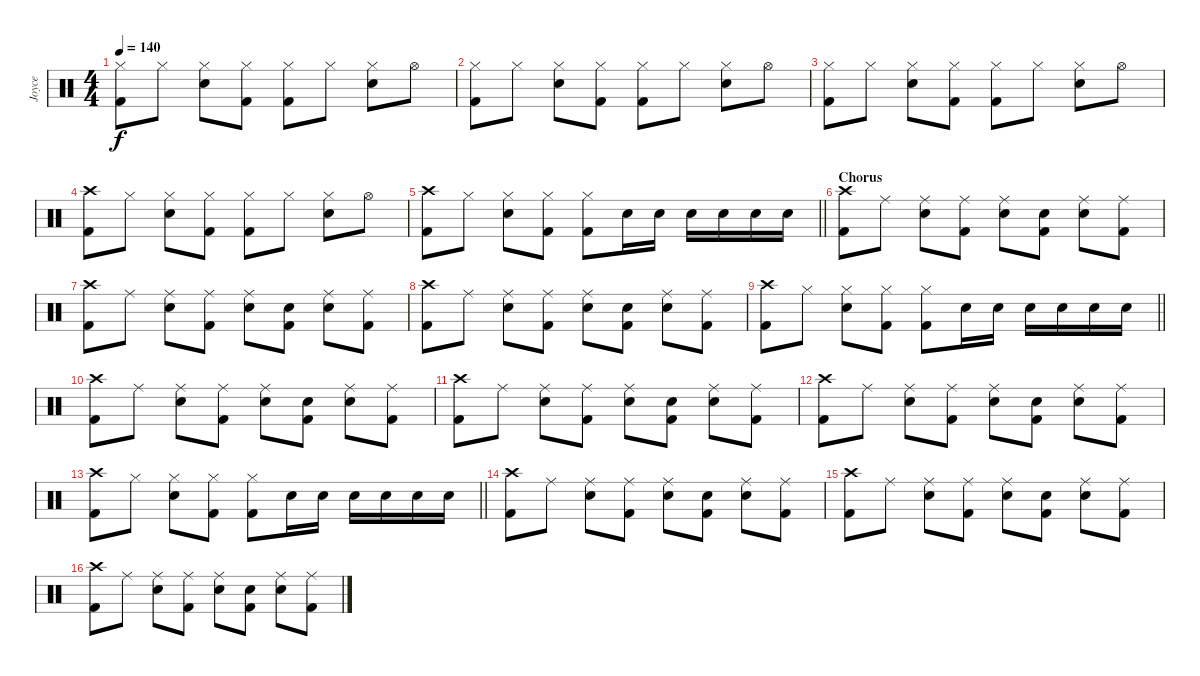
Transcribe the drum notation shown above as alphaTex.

\track ("Joyce" "Joyce") {instrument percussion}
\staff {score}
\articulation defaults
\ts (4 4)
\tempo 140
\clef neutral
\ks c
("Hi-Hat (closed)" "Kick (hit) 2").8{dy f} "Hi-Hat (closed)".8 ("Hi-Hat (closed)" "Snare (hit) 2").8 ("Hi-Hat (closed)" "Kick (hit) 2").8 ("Hi-Hat (closed)" "Kick (hit) 2").8 "Hi-Hat (closed)".8 ("Hi-Hat (closed)" "Snare (hit) 2").8 "Hi-Hat (open)".8 |
("Hi-Hat (closed)" "Kick (hit) 2").8 "Hi-Hat (closed)".8 ("Hi-Hat (closed)" "Snare (hit) 2").8 ("Hi-Hat (closed)" "Kick (hit) 2").8 ("Hi-Hat (closed)" "Kick (hit) 2").8 "Hi-Hat (closed)".8 ("Hi-Hat (closed)" "Snare (hit) 2").8 "Hi-Hat (open)".8 |
("Hi-Hat (closed)" "Kick (hit) 2").8 "Hi-Hat (closed)".8 ("Hi-Hat (closed)" "Snare (hit) 2").8 ("Hi-Hat (closed)" "Kick (hit) 2").8 ("Hi-Hat (closed)" "Kick (hit) 2").8 "Hi-Hat (closed)".8 ("Hi-Hat (closed)" "Snare (hit) 2").8 "Hi-Hat (open)".8 |
("Crash high (hit)" "Kick (hit) 2").8 "Hi-Hat (closed)".8 ("Hi-Hat (closed)" "Snare (hit) 2").8 ("Hi-Hat (closed)" "Kick (hit) 2").8 ("Hi-Hat (closed)" "Kick (hit) 2").8 "Hi-Hat (closed)".8 ("Hi-Hat (closed)" "Snare (hit) 2").8 "Hi-Hat (open)".8 |
\barLineRight lightlight
("Crash high (hit)" "Kick (hit) 2").8 "Hi-Hat (closed)".8 ("Hi-Hat (closed)" "Snare (hit) 2").8 ("Hi-Hat (closed)" "Kick (hit) 2").8 ("Hi-Hat (closed)" "Kick (hit) 2").8 "Snare (hit) 2".16 "Snare (hit) 2".16 "Snare (hit) 2".16 "Snare (hit) 2".16 "Snare (hit) 2".16 "Snare (hit) 2".16 |
\section ("" "Chorus")
("Crash high (hit)" "Kick (hit) 2").8 "Ride (middle)".8 ("Ride (middle)" "Snare (hit) 2").8 ("Ride (middle)" "Kick (hit) 2").8 ("Ride (middle)" "Snare (hit) 2").8 ("Snare (hit)" "Kick (hit) 2").8 ("Ride (middle)" "Snare (hit) 2").8 ("Ride (middle)" "Kick (hit) 2").8 |
("Crash high (hit)" "Kick (hit) 2").8 "Ride (middle)".8 ("Ride (middle)" "Snare (hit) 2").8 ("Ride (middle)" "Kick (hit) 2").8 ("Ride (middle)" "Snare (hit) 2").8 ("Snare (hit)" "Kick (hit) 2").8 ("Ride (middle)" "Snare (hit) 2").8 ("Ride (middle)" "Kick (hit) 2").8 |
("Crash high (hit)" "Kick (hit) 2").8 "Ride (middle)".8 ("Ride (middle)" "Snare (hit) 2").8 ("Ride (middle)" "Kick (hit) 2").8 ("Ride (middle)" "Snare (hit) 2").8 ("Snare (hit)" "Kick (hit) 2").8 ("Ride (middle)" "Snare (hit) 2").8 ("Ride (middle)" "Kick (hit) 2").8 |
\barLineRight lightlight
("Crash high (hit)" "Kick (hit) 2").8 "Hi-Hat (closed)".8 ("Hi-Hat (closed)" "Snare (hit) 2").8 ("Hi-Hat (closed)" "Kick (hit) 2").8 ("Hi-Hat (closed)" "Kick (hit) 2").8 "Snare (hit) 2".16 "Snare (hit) 2".16 "Snare (hit) 2".16 "Snare (hit) 2".16 "Snare (hit) 2".16 "Snare (hit) 2".16 |
("Crash high (hit)" "Kick (hit) 2").8 "Ride (middle)".8 ("Ride (middle)" "Snare (hit) 2").8 ("Ride (middle)" "Kick (hit) 2").8 ("Ride (middle)" "Snare (hit) 2").8 ("Snare (hit)" "Kick (hit) 2").8 ("Ride (middle)" "Snare (hit) 2").8 ("Ride (middle)" "Kick (hit) 2").8 |
("Crash high (hit)" "Kick (hit) 2").8 "Ride (middle)".8 ("Ride (middle)" "Snare (hit) 2").8 ("Ride (middle)" "Kick (hit) 2").8 ("Ride (middle)" "Snare (hit) 2").8 ("Snare (hit)" "Kick (hit) 2").8 ("Ride (middle)" "Snare (hit) 2").8 ("Ride (middle)" "Kick (hit) 2").8 |
("Crash high (hit)" "Kick (hit) 2").8 "Ride (middle)".8 ("Ride (middle)" "Snare (hit) 2").8 ("Ride (middle)" "Kick (hit) 2").8 ("Ride (middle)" "Snare (hit) 2").8 ("Snare (hit)" "Kick (hit) 2").8 ("Ride (middle)" "Snare (hit) 2").8 ("Ride (middle)" "Kick (hit) 2").8 |
\barLineRight lightlight
("Crash high (hit)" "Kick (hit) 2").8 "Hi-Hat (closed)".8 ("Hi-Hat (closed)" "Snare (hit) 2").8 ("Hi-Hat (closed)" "Kick (hit) 2").8 ("Hi-Hat (closed)" "Kick (hit) 2").8 "Snare (hit) 2".16 "Snare (hit) 2".16 "Snare (hit) 2".16 "Snare (hit) 2".16 "Snare (hit) 2".16 "Snare (hit) 2".16 |
("Crash high (hit)" "Kick (hit) 2").8 "Ride (middle)".8 ("Ride (middle)" "Snare (hit) 2").8 ("Ride (middle)" "Kick (hit) 2").8 ("Ride (middle)" "Snare (hit) 2").8 ("Snare (hit)" "Kick (hit) 2").8 ("Ride (middle)" "Snare (hit) 2").8 ("Ride (middle)" "Kick (hit) 2").8 |
("Crash high (hit)" "Kick (hit) 2").8 "Ride (middle)".8 ("Ride (middle)" "Snare (hit) 2").8 ("Ride (middle)" "Kick (hit) 2").8 ("Ride (middle)" "Snare (hit) 2").8 ("Snare (hit)" "Kick (hit) 2").8 ("Ride (middle)" "Snare (hit) 2").8 ("Ride (middle)" "Kick (hit) 2").8 |
("Crash high (hit)" "Kick (hit) 2").8 "Ride (middle)".8 ("Ride (middle)" "Snare (hit) 2").8 ("Ride (middle)" "Kick (hit) 2").8 ("Ride (middle)" "Snare (hit) 2").8 ("Snare (hit)" "Kick (hit) 2").8 ("Ride (middle)" "Snare (hit) 2").8 ("Ride (middle)" "Kick (hit) 2").8
